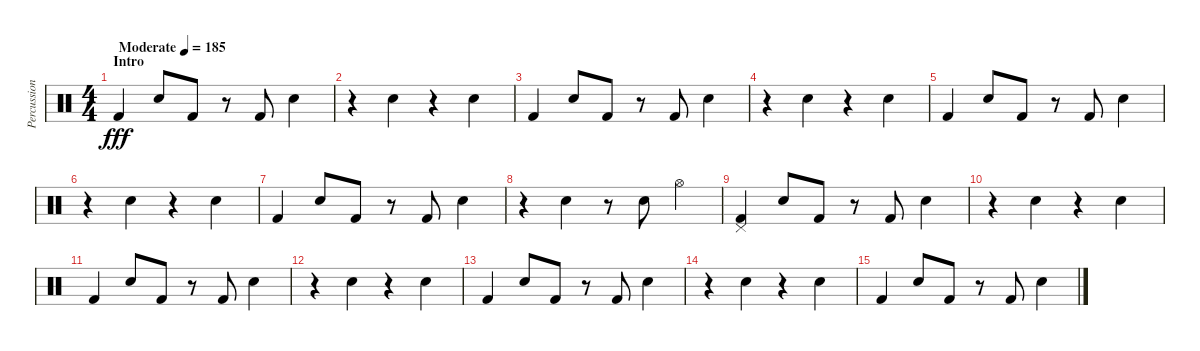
\track ("Percussion" "Percussion") {instrument percussion}
\staff {score}
\articulation defaults
\ts (4 4)
\section ("" "Intro")
\tempo (185 "Moderate")
\clef neutral
\ks c "Kick (hit) 2".4{dy fff} "Snare (hit) 2".8 "Kick (hit) 2".8
r.8 "Kick (hit) 2".8 "Snare (hit) 2".4 |
r.4 "Snare (hit) 2".4 r.4 "Snare (hit) 2".4 |
"Kick (hit) 2".4 "Snare (hit) 2".8 "Kick (hit) 2".8 r.8 "Kick (hit) 2".8 "Snare (hit) 2".4 |
r.4 "Snare (hit) 2".4 r.4 "Snare (hit) 2".4 |
"Kick (hit) 2".4 "Snare (hit) 2".8 "Kick (hit) 2".8 r.8 "Kick (hit) 2".8 "Snare (hit) 2".4 |
r.4 "Snare (hit) 2".4 r.4 "Snare (hit) 2".4 |
"Kick (hit) 2".4 "Snare (hit) 2".8 "Kick (hit) 2".8 r.8 "Kick (hit) 2".8 "Snare (hit) 2".4 |
r.4 "Snare (hit) 2".4 r.8 "Snare (hit) 2".8 "Hi-Hat (open)".4 |
("Pedal Hi-Hat (hit)" "Kick (hit) 2").4 "Snare (hit) 2".8 "Kick (hit) 2".8 r.8 "Kick (hit) 2".8 "Snare (hit) 2".4 |
r.4 "Snare (hit) 2".4 r.4 "Snare (hit) 2".4 |
"Kick (hit) 2".4 "Snare (hit) 2".8 "Kick (hit) 2".8 r.8 "Kick (hit) 2".8 "Snare (hit) 2".4 |
r.4 "Snare (hit) 2".4 r.4 "Snare (hit) 2".4 |
"Kick (hit) 2".4 "Snare (hit) 2".8 "Kick (hit) 2".8 r.8 "Kick (hit) 2".8 "Snare (hit) 2".4 |
r.4 "Snare (hit) 2".4 r.4 "Snare (hit) 2".4 |
"Kick (hit) 2".4 "Snare (hit) 2".8 "Kick (hit) 2".8 r.8 "Kick (hit) 2".8 "Snare (hit) 2".4
